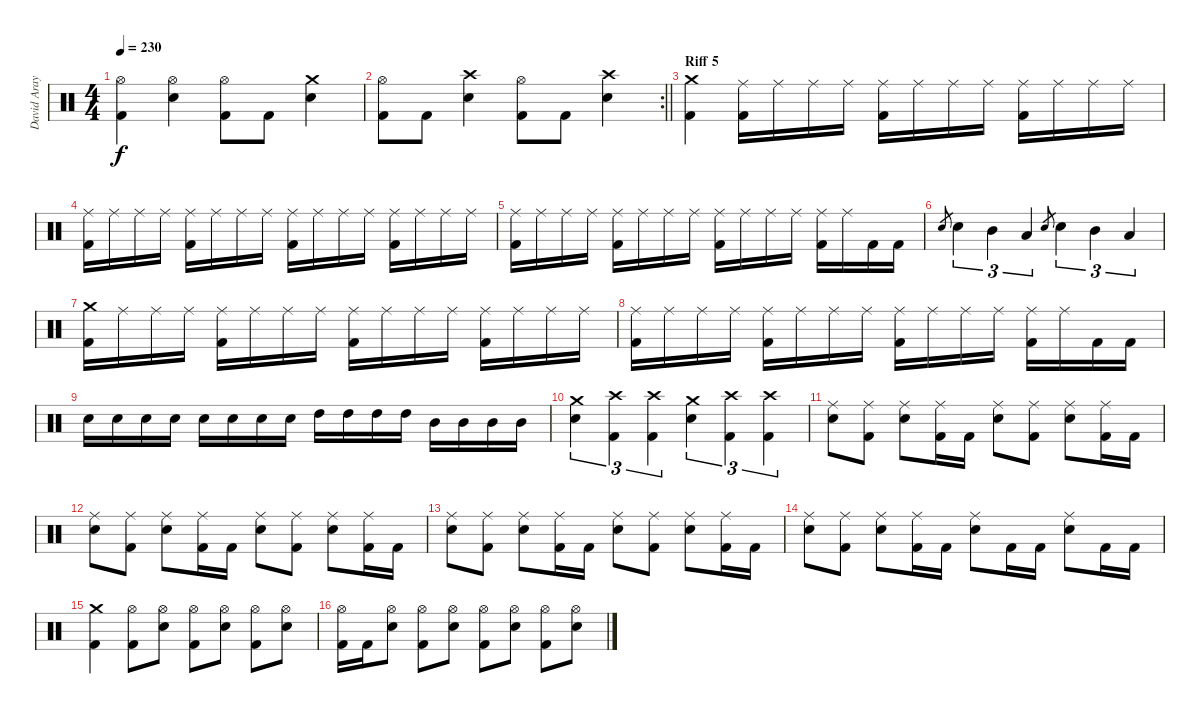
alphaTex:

\track ("David Araya" "David Aray") {instrument percussion}
\staff {score}
\articulation defaults
\ts (4 4)
\tempo 230
\clef neutral
\ks c
("Hi-Hat (open)" "Kick (hit) 2").4{dy f} ("Hi-Hat (open)" "Electric Snare (hit)").4 ("Hi-Hat (open)" "Kick (hit) 2").8 "Kick (hit) 2".8 ("Crash medium (hit)" "Electric Snare (hit)").4 |
\rc 2
\barLineRight lightlight
("Hi-Hat (open)" "Kick (hit) 2").8 "Kick (hit) 2".8 ("Crash high (hit)" "Electric Snare (hit)").4 ("Hi-Hat (open)" "Kick (hit) 2").8 "Kick (hit) 2".8 ("Crash high (hit)" "Electric Snare (hit)").4 |
\section ("" "Riff 5")
("Crash medium (hit)" "Kick (hit) 2").4 ("Ride (middle)" "Kick (hit) 2").16 "Ride (middle)".16 "Ride (middle)".16 "Ride (middle)".16 ("Ride (middle)" "Kick (hit) 2").16 "Ride (middle)".16 "Ride (middle)".16 "Ride (middle)".16 ("Ride (middle)" "Kick (hit) 2").16 "Ride (middle)".16 "Ride (middle)".16 "Ride (middle)".16 |
("Ride (middle)" "Kick (hit) 2").16 "Ride (middle)".16 "Ride (middle)".16 "Ride (middle)".16 ("Ride (middle)" "Kick (hit) 2").16 "Ride (middle)".16 "Ride (middle)".16 "Ride (middle)".16 ("Ride (middle)" "Kick (hit) 2").16 "Ride (middle)".16 "Ride (middle)".16 "Ride (middle)".16 ("Ride (middle)" "Kick (hit) 2").16 "Ride (middle)".16 "Ride (middle)".16 "Ride (middle)".16 |
("Ride (middle)" "Kick (hit) 2").16 "Ride (middle)".16 "Ride (middle)".16 "Ride (middle)".16 ("Ride (middle)" "Kick (hit) 2").16 "Ride (middle)".16 "Ride (middle)".16 "Ride (middle)".16 ("Ride (middle)" "Kick (hit) 2").16 "Ride (middle)".16 "Ride (middle)".16 "Ride (middle)".16 ("Ride (middle)" "Kick (hit) 2").16 "Ride (middle)".16 "Kick (hit) 2".16 "Kick (hit) 2".16 |
"Electric Snare (hit)".8{gr} "Electric Snare (hit)".4{tu (3 2)} "Mid Tom (hit)".4{tu (3 2)} "Low Tom (hit)".4{tu (3 2)} "Electric Snare (hit)".8{gr} "Electric Snare (hit)".4{tu (3 2)} "Mid Tom (hit)".4{tu (3 2)} "Low Tom (hit)".4{tu (3 2)} |
("Crash medium (hit)" "Kick (hit) 2").16 "Ride (middle)".16 "Ride (middle)".16 "Ride (middle)".16 ("Ride (middle)" "Kick (hit) 2").16 "Ride (middle)".16 "Ride (middle)".16 "Ride (middle)".16 ("Ride (middle)" "Kick (hit) 2").16 "Ride (middle)".16 "Ride (middle)".16 "Ride (middle)".16 ("Ride (middle)" "Kick (hit) 2").16 "Ride (middle)".16 "Ride (middle)".16 "Ride (middle)".16 |
("Ride (middle)" "Kick (hit) 2").16 "Ride (middle)".16 "Ride (middle)".16 "Ride (middle)".16 ("Ride (middle)" "Kick (hit) 2").16 "Ride (middle)".16 "Ride (middle)".16 "Ride (middle)".16 ("Ride (middle)" "Kick (hit) 2").16 "Ride (middle)".16 "Ride (middle)".16 "Ride (middle)".16 ("Ride (middle)" "Kick (hit) 2").16 "Ride (middle)".16 "Kick (hit) 2".16 "Kick (hit) 2".16 |
"Electric Snare (hit)".16 "Electric Snare (hit)".16 "Electric Snare (hit)".16 "Electric Snare (hit)".16 "Electric Snare (hit)".16 "Electric Snare (hit)".16 "Electric Snare (hit)".16 "Electric Snare (hit)".16 "High Tom (hit)".16 "High Tom (hit)".16 "High Tom (hit)".16 "High Tom (hit)".16 "Mid Tom (hit)".16 "Mid Tom (hit)".16 "Mid Tom (hit)".16 "Mid Tom (hit)".16 |
("Crash medium (hit)" "Electric Snare (hit)").4{tu (3 2)} ("Crash high (hit)" "Kick (hit) 2").4{tu (3 2)} ("Crash high (hit)" "Kick (hit) 2").4{tu (3 2)} ("Crash medium (hit)" "Electric Snare (hit)").4{tu (3 2)} ("Crash high (hit)" "Kick (hit) 2").4{tu (3 2)} ("Crash high (hit)" "Kick (hit) 2").4{tu (3 2)} |
("Ride (middle)" "Electric Snare (hit)").8 ("Ride (middle)" "Kick (hit) 2").8 ("Ride (middle)" "Electric Snare (hit)").8 ("Ride (middle)" "Kick (hit) 2").16 "Kick (hit) 2".16 ("Ride (middle)" "Electric Snare (hit)").8 ("Ride (middle)" "Kick (hit) 2").8 ("Ride (middle)" "Electric Snare (hit)").8 ("Ride (middle)" "Kick (hit) 2").16 "Kick (hit) 2".16 |
("Ride (middle)" "Electric Snare (hit)").8 ("Ride (middle)" "Kick (hit) 2").8 ("Ride (middle)" "Electric Snare (hit)").8 ("Ride (middle)" "Kick (hit) 2").16 "Kick (hit) 2".16 ("Ride (middle)" "Electric Snare (hit)").8 ("Ride (middle)" "Kick (hit) 2").8 ("Ride (middle)" "Electric Snare (hit)").8 ("Ride (middle)" "Kick (hit) 2").16 "Kick (hit) 2".16 |
("Ride (middle)" "Electric Snare (hit)").8 ("Ride (middle)" "Kick (hit) 2").8 ("Ride (middle)" "Electric Snare (hit)").8 ("Ride (middle)" "Kick (hit) 2").16 "Kick (hit) 2".16 ("Ride (middle)" "Electric Snare (hit)").8 ("Ride (middle)" "Kick (hit) 2").8 ("Ride (middle)" "Electric Snare (hit)").8 ("Ride (middle)" "Kick (hit) 2").16 "Kick (hit) 2".16 |
("Ride (middle)" "Electric Snare (hit)").8 ("Ride (middle)" "Kick (hit) 2").8 ("Ride (middle)" "Electric Snare (hit)").8 ("Ride (middle)" "Kick (hit) 2").16 "Kick (hit) 2".16 ("Ride (middle)" "Electric Snare (hit)").8 "Kick (hit) 2".16 "Kick (hit) 2".16 ("Ride (middle)" "Electric Snare (hit)").8 "Kick (hit) 2".16 "Kick (hit) 2".16 |
("Crash medium (hit)" "Kick (hit) 2").4 ("Hi-Hat (open)" "Kick (hit) 2").8 ("Hi-Hat (open)" "Electric Snare (hit)").8 ("Hi-Hat (open)" "Kick (hit) 2").8 ("Hi-Hat (open)" "Electric Snare (hit)").8 ("Hi-Hat (open)" "Kick (hit) 2").8 ("Hi-Hat (open)" "Electric Snare (hit)").8 |
("Hi-Hat (open)" "Kick (hit) 2").16 "Kick (hit) 2".16 ("Hi-Hat (open)" "Electric Snare (hit)").8 ("Hi-Hat (open)" "Kick (hit) 2").8 ("Hi-Hat (open)" "Electric Snare (hit)").8 ("Hi-Hat (open)" "Kick (hit) 2").8 ("Hi-Hat (open)" "Electric Snare (hit)").8 ("Hi-Hat (open)" "Kick (hit) 2").8 ("Hi-Hat (open)" "Electric Snare (hit)").8
